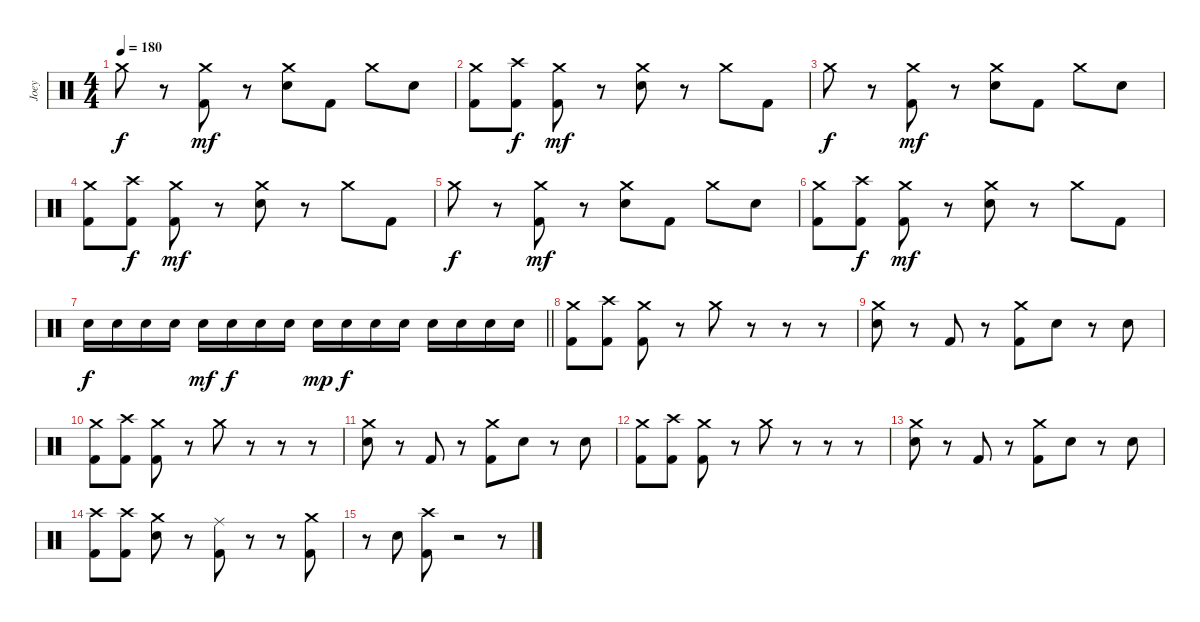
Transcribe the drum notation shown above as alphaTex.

\track ("Joey" "Joey") {instrument percussion}
\staff {score}
\articulation defaults
\ts (4 4)
\tempo 180
\clef neutral
\ks c "Crash medium (hit)".8{dy f}
r.8 ("Crash medium (hit)" "Kick (hit) 2").8{dy mf} r.8 ("Crash medium (hit)" "Electric Snare (hit)").8 "Kick (hit) 2".8 "Crash medium (hit)".8 "Electric Snare (hit)".8 |
("Crash medium (hit)" "Kick (hit) 2").8 ("Crash high (hit)" "Kick (hit) 2").8{dy f} ("Crash medium (hit)" "Kick (hit) 2").8{dy mf} r.8 ("Crash medium (hit)" "Electric Snare (hit)").8 r.8 "Crash medium (hit)".8 "Kick (hit) 2".8 |
"Crash medium (hit)".8{dy f} r.8 ("Crash medium (hit)" "Kick (hit) 2").8{dy mf} r.8 ("Crash medium (hit)" "Electric Snare (hit)").8 "Kick (hit) 2".8 "Crash medium (hit)".8 "Electric Snare (hit)".8 |
("Crash medium (hit)" "Kick (hit) 2").8 ("Crash high (hit)" "Kick (hit) 2").8{dy f} ("Crash medium (hit)" "Kick (hit) 2").8{dy mf} r.8 ("Crash medium (hit)" "Electric Snare (hit)").8 r.8 "Crash medium (hit)".8 "Kick (hit) 2".8 |
"Crash medium (hit)".8{dy f} r.8 ("Crash medium (hit)" "Kick (hit) 2").8{dy mf} r.8 ("Crash medium (hit)" "Electric Snare (hit)").8 "Kick (hit) 2".8 "Crash medium (hit)".8 "Electric Snare (hit)".8 |
("Crash medium (hit)" "Kick (hit) 2").8 ("Crash high (hit)" "Kick (hit) 2").8{dy f} ("Crash medium (hit)" "Kick (hit) 2").8{dy mf} r.8 ("Crash medium (hit)" "Electric Snare (hit)").8 r.8 "Crash medium (hit)".8 "Kick (hit) 2".8 |
\barLineRight lightlight "Electric Snare (hit)".16{dy f} "Electric Snare (hit)".16 "Electric Snare (hit)".16 "Electric Snare (hit)".16 "Electric Snare (hit)".16{dy mf} "Electric Snare (hit)".16{dy f} "Electric Snare (hit)".16 "Electric Snare (hit)".16 "Electric Snare (hit)".16{dy mp} "Electric Snare (hit)".16{dy f} "Electric Snare (hit)".16 "Electric Snare (hit)".16 "Electric Snare (hit)".16 "Electric Snare (hit)".16 "Electric Snare (hit)".16 "Electric Snare (hit)".16
|
\section ("" "")
("Crash medium (hit)" "Kick (hit) 2").8 ("Crash high (hit)" "Kick (hit) 2").8 ("Crash medium (hit)" "Kick (hit) 2").8 r.8 "Crash medium (hit)".8 r.8 r.8 r.8 |
("Crash medium (hit)" "Electric Snare (hit)").8 r.8 "Kick (hit) 2".8 r.8 ("Crash medium (hit)" "Kick (hit) 2").8 "Electric Snare (hit)".8 r.8 "Electric Snare (hit)".8 |
("Crash medium (hit)" "Kick (hit) 2").8 ("Crash high (hit)" "Kick (hit) 2").8 ("Crash medium (hit)" "Kick (hit) 2").8 r.8 "Crash medium (hit)".8 r.8 r.8 r.8 |
("Crash medium (hit)" "Electric Snare (hit)").8 r.8 "Kick (hit) 2".8 r.8 ("Crash medium (hit)" "Kick (hit) 2").8 "Electric Snare (hit)".8 r.8 "Electric Snare (hit)".8 |
("Crash medium (hit)" "Kick (hit) 2").8 ("Crash high (hit)" "Kick (hit) 2").8 ("Crash medium (hit)" "Kick (hit) 2").8 r.8 "Crash medium (hit)".8 r.8 r.8 r.8 |
("Crash medium (hit)" "Electric Snare (hit)").8 r.8 "Kick (hit) 2".8 r.8 ("Crash medium (hit)" "Kick (hit) 2").8 "Electric Snare (hit)".8 r.8 "Electric Snare (hit)".8 |
("Crash high (hit)" "Kick (hit) 2").8 ("Crash high (hit)" "Kick (hit) 2").8 ("Crash medium (hit)" "Electric Snare (hit)").8 r.8 ("Ride (middle)" "Kick (hit) 2").8 r.8 r.8 ("Crash medium (hit)" "Kick (hit) 2").8 |
r.8 "Electric Snare (hit)".8 ("Crash high (hit)" "Kick (hit) 2").8 r.2 r.8
